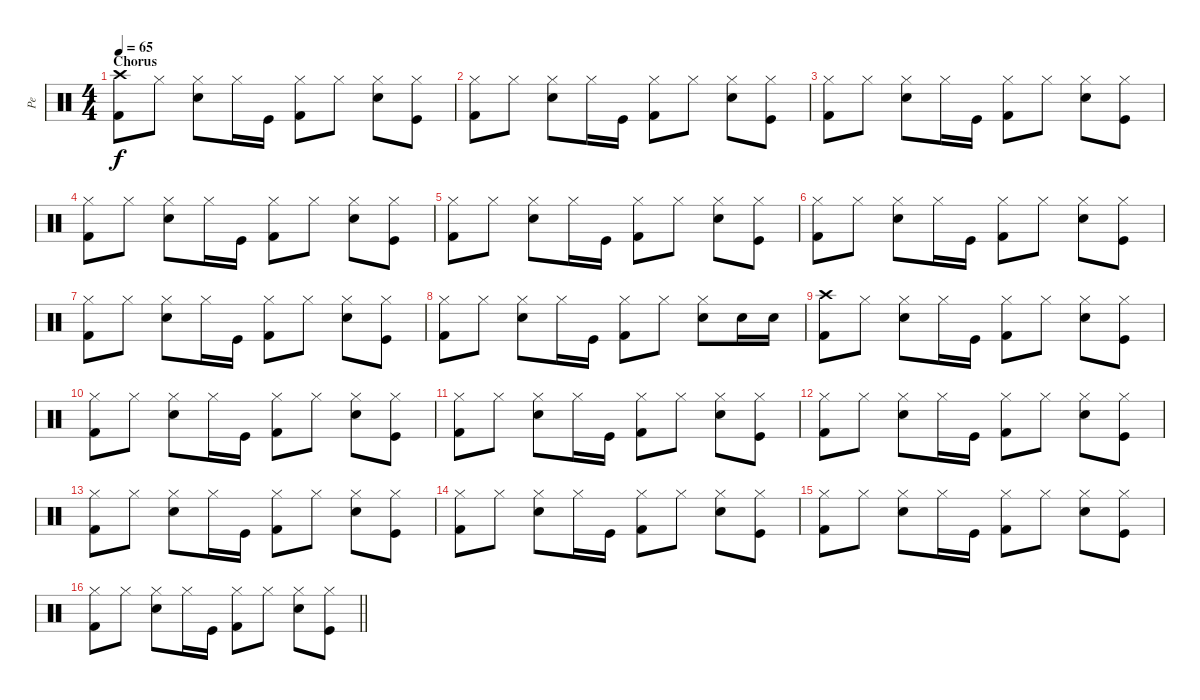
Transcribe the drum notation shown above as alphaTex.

\track ("Pe" "Pe") {instrument percussion}
\staff {score}
\articulation defaults
\ts (4 4)
\section ("" "Chorus")
\tempo 65
\clef neutral
\ks c
("Kick (hit) 2" "Crash high (hit)").8{dy f} "Hi-Hat (closed)".8 ("Electric Snare (hit)" "Hi-Hat (closed)").8 "Hi-Hat (closed)".16 "Kick (hit)".16 ("Kick (hit) 2" "Hi-Hat (closed)").8 "Hi-Hat (closed)".8 ("Electric Snare (hit)" "Hi-Hat (closed)").8 ("Kick (hit)" "Hi-Hat (closed)").8 |
("Kick (hit) 2" "Hi-Hat (closed)").8 "Hi-Hat (closed)".8 ("Electric Snare (hit)" "Hi-Hat (closed)").8 "Hi-Hat (closed)".16 "Kick (hit)".16 ("Kick (hit) 2" "Hi-Hat (closed)").8 "Hi-Hat (closed)".8 ("Electric Snare (hit)" "Hi-Hat (closed)").8 ("Kick (hit)" "Hi-Hat (closed)").8 |
("Kick (hit) 2" "Hi-Hat (closed)").8 "Hi-Hat (closed)".8 ("Electric Snare (hit)" "Hi-Hat (closed)").8 "Hi-Hat (closed)".16 "Kick (hit)".16 ("Kick (hit) 2" "Hi-Hat (closed)").8 "Hi-Hat (closed)".8 ("Electric Snare (hit)" "Hi-Hat (closed)").8 ("Kick (hit)" "Hi-Hat (closed)").8 |
("Kick (hit) 2" "Hi-Hat (closed)").8 "Hi-Hat (closed)".8 ("Electric Snare (hit)" "Hi-Hat (closed)").8 "Hi-Hat (closed)".16 "Kick (hit)".16 ("Kick (hit) 2" "Hi-Hat (closed)").8 "Hi-Hat (closed)".8 ("Electric Snare (hit)" "Hi-Hat (closed)").8 ("Kick (hit)" "Hi-Hat (closed)").8 |
("Kick (hit) 2" "Hi-Hat (closed)").8 "Hi-Hat (closed)".8 ("Electric Snare (hit)" "Hi-Hat (closed)").8 "Hi-Hat (closed)".16 "Kick (hit)".16 ("Kick (hit) 2" "Hi-Hat (closed)").8 "Hi-Hat (closed)".8 ("Electric Snare (hit)" "Hi-Hat (closed)").8 ("Kick (hit)" "Hi-Hat (closed)").8 |
("Kick (hit) 2" "Hi-Hat (closed)").8 "Hi-Hat (closed)".8 ("Electric Snare (hit)" "Hi-Hat (closed)").8 "Hi-Hat (closed)".16 "Kick (hit)".16 ("Kick (hit) 2" "Hi-Hat (closed)").8 "Hi-Hat (closed)".8 ("Electric Snare (hit)" "Hi-Hat (closed)").8 ("Kick (hit)" "Hi-Hat (closed)").8 |
("Kick (hit) 2" "Hi-Hat (closed)").8 "Hi-Hat (closed)".8 ("Electric Snare (hit)" "Hi-Hat (closed)").8 "Hi-Hat (closed)".16 "Kick (hit)".16 ("Kick (hit) 2" "Hi-Hat (closed)").8 "Hi-Hat (closed)".8 ("Electric Snare (hit)" "Hi-Hat (closed)").8 ("Kick (hit)" "Hi-Hat (closed)").8 |
("Kick (hit) 2" "Hi-Hat (closed)").8 "Hi-Hat (closed)".8 ("Electric Snare (hit)" "Hi-Hat (closed)").8 "Hi-Hat (closed)".16 "Kick (hit)".16 ("Kick (hit) 2" "Hi-Hat (closed)").8 "Hi-Hat (closed)".8 ("Electric Snare (hit)" "Hi-Hat (closed)").8 "Electric Snare (hit)".16 "Electric Snare (hit)".16 |
("Kick (hit) 2" "Crash high (hit)").8 "Hi-Hat (closed)".8 ("Electric Snare (hit)" "Hi-Hat (closed)").8 "Hi-Hat (closed)".16 "Kick (hit)".16 ("Kick (hit) 2" "Hi-Hat (closed)").8 "Hi-Hat (closed)".8 ("Electric Snare (hit)" "Hi-Hat (closed)").8 ("Kick (hit)" "Hi-Hat (closed)").8 |
("Kick (hit) 2" "Hi-Hat (closed)").8 "Hi-Hat (closed)".8 ("Electric Snare (hit)" "Hi-Hat (closed)").8 "Hi-Hat (closed)".16 "Kick (hit)".16 ("Kick (hit) 2" "Hi-Hat (closed)").8 "Hi-Hat (closed)".8 ("Electric Snare (hit)" "Hi-Hat (closed)").8 ("Kick (hit)" "Hi-Hat (closed)").8 |
("Kick (hit) 2" "Hi-Hat (closed)").8 "Hi-Hat (closed)".8 ("Electric Snare (hit)" "Hi-Hat (closed)").8 "Hi-Hat (closed)".16 "Kick (hit)".16 ("Kick (hit) 2" "Hi-Hat (closed)").8 "Hi-Hat (closed)".8 ("Electric Snare (hit)" "Hi-Hat (closed)").8 ("Kick (hit)" "Hi-Hat (closed)").8 |
("Kick (hit) 2" "Hi-Hat (closed)").8 "Hi-Hat (closed)".8 ("Electric Snare (hit)" "Hi-Hat (closed)").8 "Hi-Hat (closed)".16 "Kick (hit)".16 ("Kick (hit) 2" "Hi-Hat (closed)").8 "Hi-Hat (closed)".8 ("Electric Snare (hit)" "Hi-Hat (closed)").8 ("Kick (hit)" "Hi-Hat (closed)").8 |
("Kick (hit) 2" "Hi-Hat (closed)").8 "Hi-Hat (closed)".8 ("Electric Snare (hit)" "Hi-Hat (closed)").8 "Hi-Hat (closed)".16 "Kick (hit)".16 ("Kick (hit) 2" "Hi-Hat (closed)").8 "Hi-Hat (closed)".8 ("Electric Snare (hit)" "Hi-Hat (closed)").8 ("Kick (hit)" "Hi-Hat (closed)").8 |
("Kick (hit) 2" "Hi-Hat (closed)").8 "Hi-Hat (closed)".8 ("Electric Snare (hit)" "Hi-Hat (closed)").8 "Hi-Hat (closed)".16 "Kick (hit)".16 ("Kick (hit) 2" "Hi-Hat (closed)").8 "Hi-Hat (closed)".8 ("Electric Snare (hit)" "Hi-Hat (closed)").8 ("Kick (hit)" "Hi-Hat (closed)").8 |
("Kick (hit) 2" "Hi-Hat (closed)").8 "Hi-Hat (closed)".8 ("Electric Snare (hit)" "Hi-Hat (closed)").8 "Hi-Hat (closed)".16 "Kick (hit)".16 ("Kick (hit) 2" "Hi-Hat (closed)").8 "Hi-Hat (closed)".8 ("Electric Snare (hit)" "Hi-Hat (closed)").8 ("Kick (hit)" "Hi-Hat (closed)").8 |
\barLineRight lightlight
("Kick (hit) 2" "Hi-Hat (closed)").8 "Hi-Hat (closed)".8 ("Electric Snare (hit)" "Hi-Hat (closed)").8 "Hi-Hat (closed)".16 "Kick (hit)".16 ("Kick (hit) 2" "Hi-Hat (closed)").8 "Hi-Hat (closed)".8 ("Electric Snare (hit)" "Hi-Hat (closed)").8 ("Kick (hit)" "Hi-Hat (closed)").8
